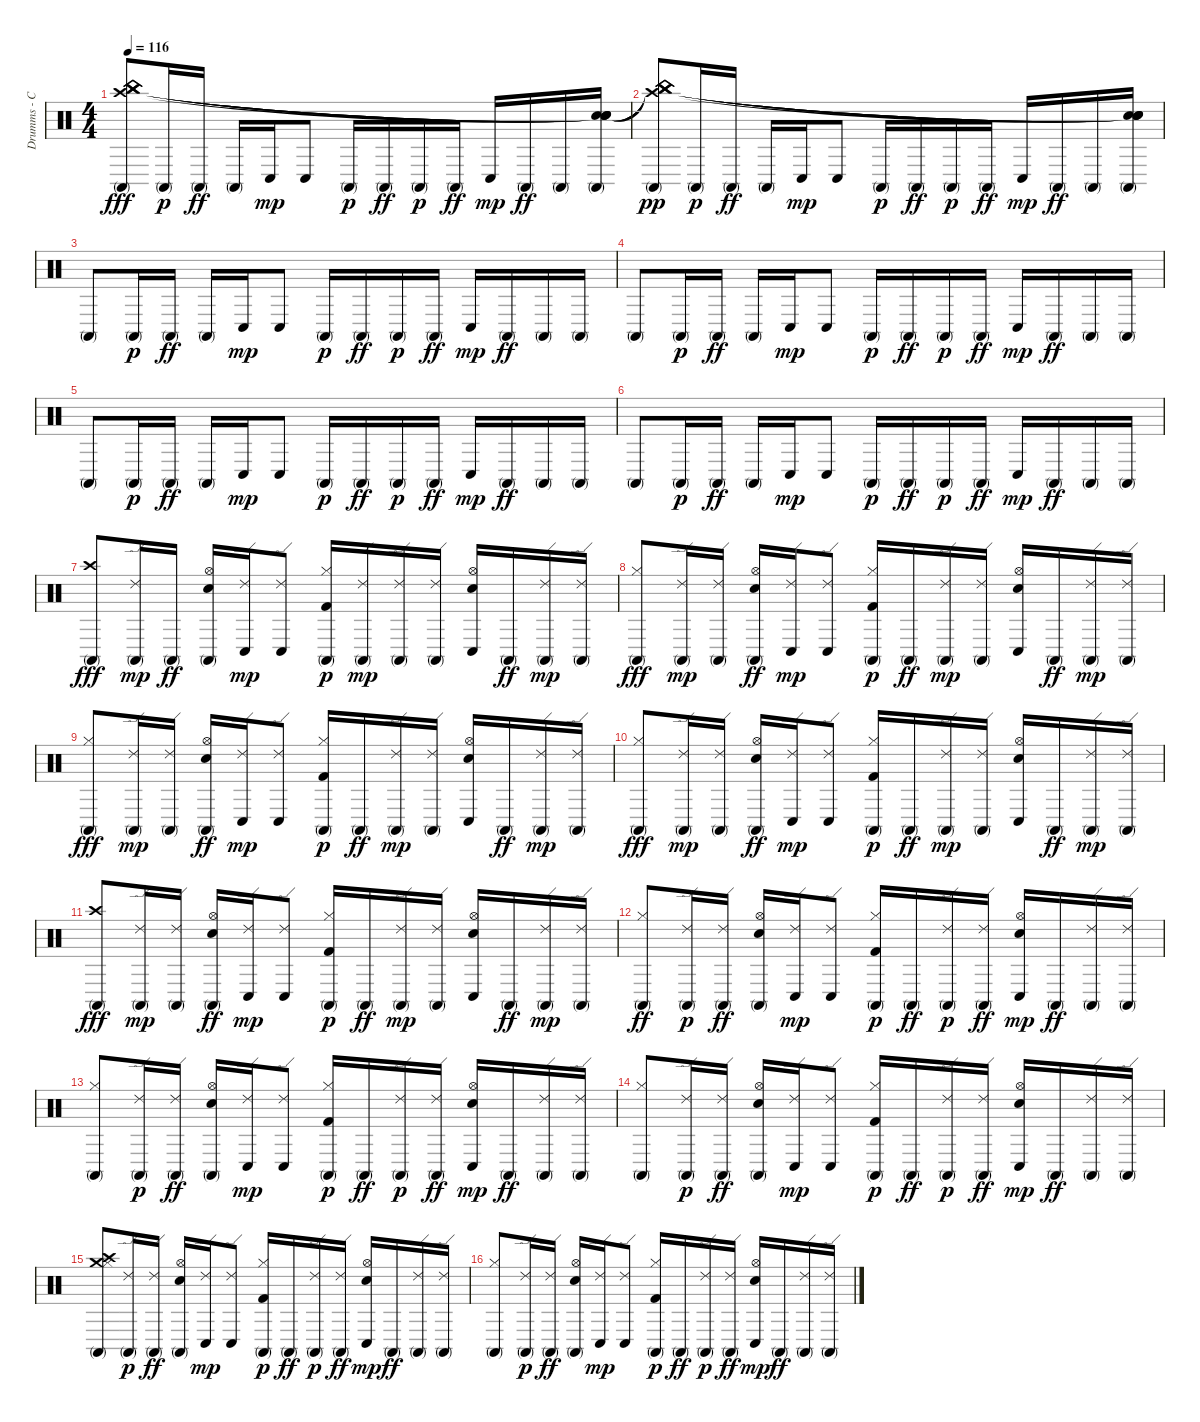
\track ("Drumms - Conga" "Drumms - C") {instrument percussion}
\staff {score}
\articulation defaults
\ts (4 4)
\tempo 116
\clef neutral
\ks c
("Conga high (mute)" "China (hit)" "China (hit)" "Crash high (hit)" "China (hit)").8{dy fff} "Conga high (mute)".16{dy p} "Conga high (mute)".16{dy ff} "Conga high (mute)".16 "Conga low (hit)".16{dy mp} "Conga low (hit)".8 "Conga high (mute)".16{dy p} "Conga high (mute)".16{dy ff} "Conga high (mute)".16{dy p} "Conga high (mute)".16{dy ff} "Conga low (hit)".16{dy mp} "Conga high (mute)".16{dy ff} "Conga high (mute)".16 ("Conga high (mute)" "Snare (hit)"{t} "Snare (hit)"{t} "Snare (hit)"{t} "Snare (hit)"{t}).16 |
("Conga high (mute)" "China (hit)"{t} "China (hit)"{t} "Crash high (hit)"{t} "China (hit)").8{dy pp} "Conga high (mute)".16{dy p} "Conga high (mute)".16{dy ff} "Conga high (mute)".16 "Conga low (hit)".16{dy mp} "Conga low (hit)".8 "Conga high (mute)".16{dy p} "Conga high (mute)".16{dy ff} "Conga high (mute)".16{dy p} "Conga high (mute)".16{dy ff} "Conga low (hit)".16{dy mp} "Conga high (mute)".16{dy ff} "Conga high (mute)".16 ("Conga high (mute)" "Snare (hit)"{t} "Snare (hit)"{t} "Snare (hit)"{t} "Snare (hit)"{t}).16 |
\section ("" "")
"Conga high (mute)".8 "Conga high (mute)".16{dy p} "Conga high (mute)".16{dy ff} "Conga high (mute)".16 "Conga low (hit)".16{dy mp} "Conga low (hit)".8 "Conga high (mute)".16{dy p} "Conga high (mute)".16{dy ff} "Conga high (mute)".16{dy p} "Conga high (mute)".16{dy ff} "Conga low (hit)".16{dy mp} "Conga high (mute)".16{dy ff} "Conga high (mute)".16 "Conga high (mute)".16 |
"Conga high (mute)".8 "Conga high (mute)".16{dy p} "Conga high (mute)".16{dy ff} "Conga high (mute)".16 "Conga low (hit)".16{dy mp} "Conga low (hit)".8 "Conga high (mute)".16{dy p} "Conga high (mute)".16{dy ff} "Conga high (mute)".16{dy p} "Conga high (mute)".16{dy ff} "Conga low (hit)".16{dy mp} "Conga high (mute)".16{dy ff} "Conga high (mute)".16 "Conga high (mute)".16 |
"Conga high (mute)".8 "Conga high (mute)".16{dy p} "Conga high (mute)".16{dy ff} "Conga high (mute)".16 "Conga low (hit)".16{dy mp} "Conga low (hit)".8 "Conga high (mute)".16{dy p} "Conga high (mute)".16{dy ff} "Conga high (mute)".16{dy p} "Conga high (mute)".16{dy ff} "Conga low (hit)".16{dy mp} "Conga high (mute)".16{dy ff} "Conga high (mute)".16 "Conga high (mute)".16 |
"Conga high (mute)".8 "Conga high (mute)".16{dy p} "Conga high (mute)".16{dy ff} "Conga high (mute)".16 "Conga low (hit)".16{dy mp} "Conga low (hit)".8 "Conga high (mute)".16{dy p} "Conga high (mute)".16{dy ff} "Conga high (mute)".16{dy p} "Conga high (mute)".16{dy ff} "Conga low (hit)".16{dy mp} "Conga high (mute)".16{dy ff} "Conga high (mute)".16 "Conga high (mute)".16 |
\section ("" "")
("Conga high (mute)" "Crash high (hit)").8{dy fff} ("Conga high (mute)" "Ride (edge) 2").16{dy mp} "Conga high (mute)".16{dy ff} ("Conga high (mute)" "Snare (hit) 2" "Hi-Hat (open)").16 ("Conga low (hit)" "Ride (edge) 2").16{dy mp} ("Conga low (hit)" "Ride (edge) 2").8 ("Conga high (mute)" "Kick (hit) 2" "Hi-Hat (closed)").16{dy p} ("Conga high (mute)" "Ride (edge) 2").16{dy mp} ("Conga high (mute)" "Ride (edge) 2").16 ("Conga high (mute)" "Ride (edge) 2").16 ("Conga low (hit)" "Snare (hit) 2" "Hi-Hat (open)").16 "Conga high (mute)".16{dy ff} ("Conga high (mute)" "Ride (edge) 2").16{dy mp} ("Conga high (mute)" "Ride (edge) 2").16 |
("Conga high (mute)" "Hi-Hat (closed)").8{dy fff} ("Conga high (mute)" "Ride (edge) 2").16{dy mp} ("Conga high (mute)" "Ride (edge) 2").16 ("Conga high (mute)" "Snare (hit) 2" "Hi-Hat (open)").16{dy ff} ("Conga low (hit)" "Ride (edge) 2").16{dy mp} ("Conga low (hit)" "Ride (edge) 2").8 ("Conga high (mute)" "Kick (hit) 2" "Hi-Hat (closed)").16{dy p} "Conga high (mute)".16{dy ff} ("Conga high (mute)" "Ride (edge) 2").16{dy mp} ("Conga high (mute)" "Ride (edge) 2").16 ("Conga low (hit)" "Snare (hit) 2" "Hi-Hat (open)").16 "Conga high (mute)".16{dy ff} ("Conga high (mute)" "Ride (edge) 2").16{dy mp} ("Conga high (mute)" "Ride (edge) 2").16 |
("Conga high (mute)" "Hi-Hat (closed)").8{dy fff} ("Conga high (mute)" "Ride (edge) 2").16{dy mp} ("Conga high (mute)" "Ride (edge) 2").16 ("Conga high (mute)" "Snare (hit) 2" "Hi-Hat (open)").16{dy ff} ("Conga low (hit)" "Ride (edge) 2").16{dy mp} ("Conga low (hit)" "Ride (edge) 2").8 ("Conga high (mute)" "Kick (hit) 2" "Hi-Hat (closed)").16{dy p} "Conga high (mute)".16{dy ff} ("Conga high (mute)" "Ride (edge) 2").16{dy mp} ("Conga high (mute)" "Ride (edge) 2").16 ("Conga low (hit)" "Snare (hit) 2" "Hi-Hat (open)").16 "Conga high (mute)".16{dy ff} ("Conga high (mute)" "Ride (edge) 2").16{dy mp} ("Conga high (mute)" "Ride (edge) 2").16 |
("Conga high (mute)" "Hi-Hat (closed)").8{dy fff} ("Conga high (mute)" "Ride (edge) 2").16{dy mp} ("Conga high (mute)" "Ride (edge) 2").16 ("Conga high (mute)" "Snare (hit) 2" "Hi-Hat (open)").16{dy ff} ("Conga low (hit)" "Ride (edge) 2").16{dy mp} ("Conga low (hit)" "Ride (edge) 2").8 ("Conga high (mute)" "Kick (hit) 2" "Hi-Hat (closed)").16{dy p} "Conga high (mute)".16{dy ff} ("Conga high (mute)" "Ride (edge) 2").16{dy mp} ("Conga high (mute)" "Ride (edge) 2").16 ("Conga low (hit)" "Snare (hit) 2" "Hi-Hat (open)").16 "Conga high (mute)".16{dy ff} ("Conga high (mute)" "Ride (edge) 2").16{dy mp} ("Conga high (mute)" "Ride (edge) 2").16 |
("Conga high (mute)" "Crash high (hit)").8{dy fff} ("Conga high (mute)" "Ride (edge) 2").16{dy mp} ("Conga high (mute)" "Ride (edge) 2").16 ("Conga high (mute)" "Snare (hit) 2" "Hi-Hat (open)").16{dy ff} ("Conga low (hit)" "Ride (edge) 2").16{dy mp} ("Conga low (hit)" "Ride (edge) 2").8 ("Conga high (mute)" "Kick (hit) 2" "Hi-Hat (closed)").16{dy p} "Conga high (mute)".16{dy ff} ("Conga high (mute)" "Ride (edge) 2").16{dy mp} ("Conga high (mute)" "Ride (edge) 2").16 ("Conga low (hit)" "Snare (hit) 2" "Hi-Hat (open)").16 "Conga high (mute)".16{dy ff} ("Conga high (mute)" "Ride (edge) 2").16{dy mp} ("Conga high (mute)" "Ride (edge) 2").16 |
("Conga high (mute)" "Hi-Hat (closed)").8{dy ff} ("Conga high (mute)" "Ride (edge) 2").16{dy p} ("Conga high (mute)" "Ride (edge) 2").16{dy ff} ("Conga high (mute)" "Snare (hit) 2" "Hi-Hat (open)").16 ("Conga low (hit)" "Ride (edge) 2").16{dy mp} ("Conga low (hit)" "Ride (edge) 2").8 ("Conga high (mute)" "Kick (hit) 2" "Hi-Hat (closed)").16{dy p} "Conga high (mute)".16{dy ff} ("Conga high (mute)" "Ride (edge) 2").16{dy p} ("Conga high (mute)" "Ride (edge) 2").16{dy ff} ("Conga low (hit)" "Snare (hit) 2" "Hi-Hat (open)").16{dy mp} "Conga high (mute)".16{dy ff} ("Conga high (mute)" "Ride (edge) 2").16 ("Conga high (mute)" "Ride (edge) 2").16 |
("Conga high (mute)" "Hi-Hat (closed)").8 ("Conga high (mute)" "Ride (edge) 2").16{dy p} ("Conga high (mute)" "Ride (edge) 2").16{dy ff} ("Conga high (mute)" "Snare (hit) 2" "Hi-Hat (open)").16 ("Conga low (hit)" "Ride (edge) 2").16{dy mp} ("Conga low (hit)" "Ride (edge) 2").8 ("Conga high (mute)" "Kick (hit) 2" "Hi-Hat (closed)").16{dy p} "Conga high (mute)".16{dy ff} ("Conga high (mute)" "Ride (edge) 2").16{dy p} ("Conga high (mute)" "Ride (edge) 2").16{dy ff} ("Conga low (hit)" "Snare (hit) 2" "Hi-Hat (open)").16{dy mp} "Conga high (mute)".16{dy ff} ("Conga high (mute)" "Ride (edge) 2").16 ("Conga high (mute)" "Ride (edge) 2").16 |
("Conga high (mute)" "Hi-Hat (closed)").8 ("Conga high (mute)" "Ride (edge) 2").16{dy p} ("Conga high (mute)" "Ride (edge) 2").16{dy ff} ("Conga high (mute)" "Snare (hit) 2" "Hi-Hat (open)").16 ("Conga low (hit)" "Ride (edge) 2").16{dy mp} ("Conga low (hit)" "Ride (edge) 2").8 ("Conga high (mute)" "Kick (hit) 2" "Hi-Hat (closed)").16{dy p} "Conga high (mute)".16{dy ff} ("Conga high (mute)" "Ride (edge) 2").16{dy p} ("Conga high (mute)" "Ride (edge) 2").16{dy ff} ("Conga low (hit)" "Snare (hit) 2" "Hi-Hat (open)").16{dy mp} "Conga high (mute)".16{dy ff} ("Conga high (mute)" "Ride (edge) 2").16 ("Conga high (mute)" "Ride (edge) 2").16 |
\section ("" "")
("Conga high (mute)" "Crash medium (hit)" "Crash high (hit)" "Hi-Hat (closed)").8 ("Conga high (mute)" "Ride (edge) 2").16{dy p} ("Conga high (mute)" "Ride (edge) 2").16{dy ff} ("Conga high (mute)" "Snare (hit) 2" "Hi-Hat (open)").16 ("Conga low (hit)" "Ride (edge) 2").16{dy mp} ("Conga low (hit)" "Ride (edge) 2").8 ("Conga high (mute)" "Kick (hit) 2" "Hi-Hat (closed)").16{dy p} "Conga high (mute)".16{dy ff} ("Conga high (mute)" "Ride (edge) 2").16{dy p} ("Conga high (mute)" "Ride (edge) 2").16{dy ff} ("Conga low (hit)" "Snare (hit) 2" "Hi-Hat (open)").16{dy mp} "Conga high (mute)".16{dy ff} ("Conga high (mute)" "Ride (edge) 2").16 ("Conga high (mute)" "Ride (edge) 2").16 |
("Conga high (mute)" "Hi-Hat (closed)").8 ("Conga high (mute)" "Ride (edge) 2").16{dy p} ("Conga high (mute)" "Ride (edge) 2").16{dy ff} ("Conga high (mute)" "Snare (hit) 2" "Hi-Hat (open)").16 ("Conga low (hit)" "Ride (edge) 2").16{dy mp} ("Conga low (hit)" "Ride (edge) 2").8 ("Conga high (mute)" "Kick (hit) 2" "Hi-Hat (closed)").16{dy p} "Conga high (mute)".16{dy ff} ("Conga high (mute)" "Ride (edge) 2").16{dy p} ("Conga high (mute)" "Ride (edge) 2").16{dy ff} ("Conga low (hit)" "Snare (hit) 2" "Hi-Hat (open)").16{dy mp} "Conga high (mute)".16{dy ff} ("Conga high (mute)" "Ride (edge) 2").16 ("Conga high (mute)" "Ride (edge) 2").16
